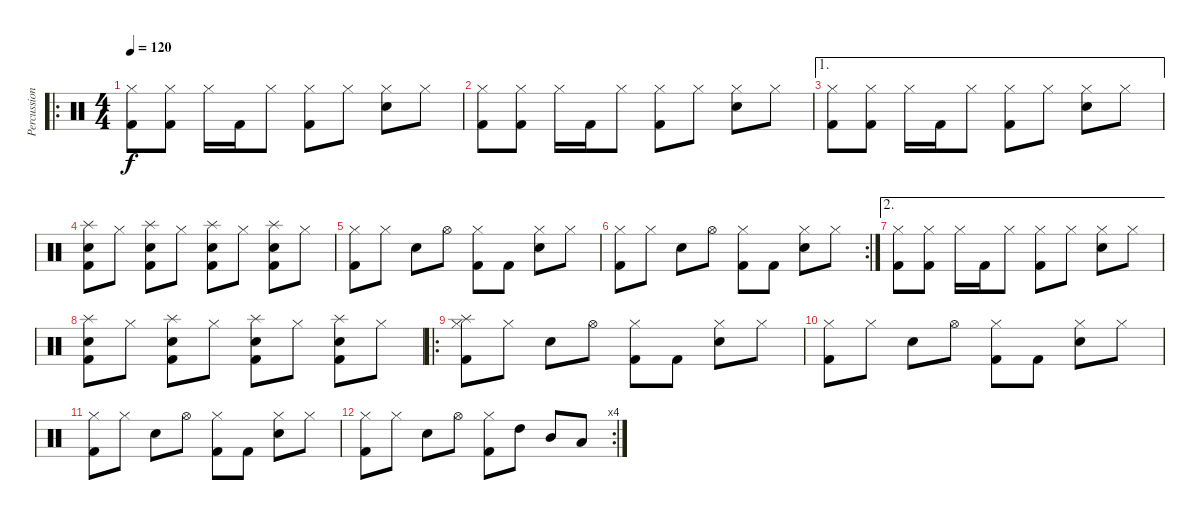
\track ("Percussion" "Percussion") {instrument percussion}
\staff {score}
\articulation defaults
\ro
\ts (4 4)
\tempo 120
\clef neutral
\ks c
("Hi-Hat (closed)" "Kick (hit) 2").8{dy f} ("Hi-Hat (closed)" "Kick (hit) 2").8 "Hi-Hat (closed)".16 "Kick (hit) 2".16 "Hi-Hat (closed)".8 ("Hi-Hat (closed)" "Kick (hit) 2").8 "Hi-Hat (closed)".8 ("Hi-Hat (closed)" "Snare (hit) 2").8 "Hi-Hat (closed)".8 |
("Hi-Hat (closed)" "Kick (hit) 2").8 ("Hi-Hat (closed)" "Kick (hit) 2").8 "Hi-Hat (closed)".16 "Kick (hit) 2".16 "Hi-Hat (closed)".8 ("Hi-Hat (closed)" "Kick (hit) 2").8 "Hi-Hat (closed)".8 ("Hi-Hat (closed)" "Snare (hit) 2").8 "Hi-Hat (closed)".8 |
\ae 1
("Hi-Hat (closed)" "Kick (hit) 2").8 ("Hi-Hat (closed)" "Kick (hit) 2").8 "Hi-Hat (closed)".16 "Kick (hit) 2".16 "Hi-Hat (closed)".8 ("Hi-Hat (closed)" "Kick (hit) 2").8 "Hi-Hat (closed)".8 ("Hi-Hat (closed)" "Snare (hit) 2").8 "Hi-Hat (closed)".8 |
("Splash (hit)" "Snare (hit) 2" "Kick (hit) 2").8 "Hi-Hat (closed)".8 ("Splash (hit)" "Snare (hit) 2" "Kick (hit) 2").8 "Hi-Hat (closed)".8 ("Splash (hit)" "Snare (hit) 2" "Kick (hit) 2").8 "Hi-Hat (closed)".8 ("Splash (hit)" "Snare (hit) 2" "Kick (hit) 2").8 "Hi-Hat (closed)".8 |
("Hi-Hat (closed)" "Kick (hit) 2").8 "Hi-Hat (closed)".8 "Snare (hit) 2".8 "Hi-Hat (open)".8 ("Hi-Hat (closed)" "Kick (hit) 2").8 "Kick (hit) 2".8 ("Hi-Hat (closed)" "Snare (hit) 2").8 "Hi-Hat (closed)".8 |
\rc 2
("Hi-Hat (closed)" "Kick (hit) 2").8 "Hi-Hat (closed)".8 "Snare (hit) 2".8 "Hi-Hat (open)".8 ("Hi-Hat (closed)" "Kick (hit) 2").8 "Kick (hit) 2".8 ("Hi-Hat (closed)" "Snare (hit) 2").8 "Hi-Hat (closed)".8 |
\ae 2
("Hi-Hat (closed)" "Kick (hit) 2").8 ("Hi-Hat (closed)" "Kick (hit) 2").8 "Hi-Hat (closed)".16 "Kick (hit) 2".16 "Hi-Hat (closed)".8 ("Hi-Hat (closed)" "Kick (hit) 2").8 "Hi-Hat (closed)".8 ("Hi-Hat (closed)" "Snare (hit) 2").8 "Hi-Hat (closed)".8 |
("Splash (hit)" "Snare (hit) 2" "Kick (hit) 2").8 "Hi-Hat (closed)".8 ("Splash (hit)" "Snare (hit) 2" "Kick (hit) 2").8 "Hi-Hat (closed)".8 ("Splash (hit)" "Snare (hit) 2" "Kick (hit) 2").8 "Hi-Hat (closed)".8 ("Splash (hit)" "Snare (hit) 2" "Kick (hit) 2").8 "Hi-Hat (closed)".8 |
\ro
("Hi-Hat (closed)" "Splash (hit)" "Kick (hit) 2").8 "Hi-Hat (closed)".8 "Snare (hit) 2".8 "Hi-Hat (open)".8 ("Hi-Hat (closed)" "Kick (hit) 2").8 "Kick (hit) 2".8 ("Hi-Hat (closed)" "Snare (hit) 2").8 "Hi-Hat (closed)".8 |
("Hi-Hat (closed)" "Kick (hit) 2").8 "Hi-Hat (closed)".8 "Snare (hit) 2".8 "Hi-Hat (open)".8 ("Hi-Hat (closed)" "Kick (hit) 2").8 "Kick (hit) 2".8 ("Hi-Hat (closed)" "Snare (hit) 2").8 "Hi-Hat (closed)".8 |
("Hi-Hat (closed)" "Kick (hit) 2").8 "Hi-Hat (closed)".8 "Snare (hit) 2".8 "Hi-Hat (open)".8 ("Hi-Hat (closed)" "Kick (hit) 2").8 "Kick (hit) 2".8 ("Hi-Hat (closed)" "Snare (hit) 2").8 "Hi-Hat (closed)".8 |
\rc 4
("Hi-Hat (closed)" "Kick (hit) 2").8 "Hi-Hat (closed)".8 "Snare (hit) 2".8 "Hi-Hat (open)".8 ("Hi-Hat (closed)" "Kick (hit) 2").8 "High Tom (hit)".8 "Mid Tom (hit)".8 "Low Tom (hit)".8
